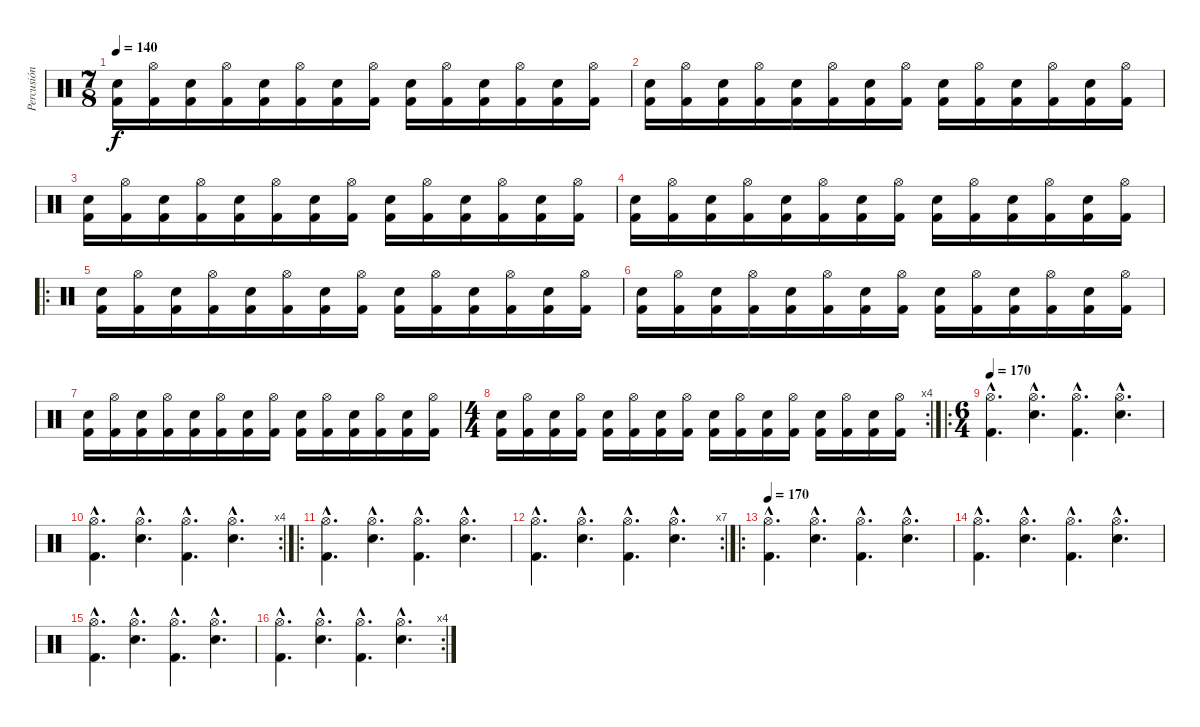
\track ("Percusión" "Percusión") {instrument percussion}
\staff {score}
\articulation defaults
\ts (7 8)
\tempo 140
\clef neutral
\ks c
("Snare (hit) 2" "Kick (hit) 2").16{dy f} ("Hi-Hat (open)" "Kick (hit) 2").16 ("Snare (hit) 2" "Kick (hit) 2").16 ("Hi-Hat (open)" "Kick (hit) 2").16 ("Snare (hit) 2" "Kick (hit) 2").16 ("Hi-Hat (open)" "Kick (hit) 2").16 ("Snare (hit) 2" "Kick (hit) 2").16 ("Hi-Hat (open)" "Kick (hit) 2").16 ("Snare (hit) 2" "Kick (hit) 2").16 ("Hi-Hat (open)" "Kick (hit) 2").16 ("Snare (hit) 2" "Kick (hit) 2").16 ("Hi-Hat (open)" "Kick (hit) 2").16 ("Snare (hit) 2" "Kick (hit) 2").16 ("Hi-Hat (open)" "Kick (hit) 2").16 |
("Snare (hit) 2" "Kick (hit) 2").16 ("Hi-Hat (open)" "Kick (hit) 2").16 ("Snare (hit) 2" "Kick (hit) 2").16 ("Hi-Hat (open)" "Kick (hit) 2").16 ("Snare (hit) 2" "Kick (hit) 2").16 ("Hi-Hat (open)" "Kick (hit) 2").16 ("Snare (hit) 2" "Kick (hit) 2").16 ("Hi-Hat (open)" "Kick (hit) 2").16 ("Snare (hit) 2" "Kick (hit) 2").16 ("Hi-Hat (open)" "Kick (hit) 2").16 ("Snare (hit) 2" "Kick (hit) 2").16 ("Hi-Hat (open)" "Kick (hit) 2").16 ("Snare (hit) 2" "Kick (hit) 2").16 ("Hi-Hat (open)" "Kick (hit) 2").16 |
("Snare (hit) 2" "Kick (hit) 2").16 ("Hi-Hat (open)" "Kick (hit) 2").16 ("Snare (hit) 2" "Kick (hit) 2").16 ("Hi-Hat (open)" "Kick (hit) 2").16 ("Snare (hit) 2" "Kick (hit) 2").16 ("Hi-Hat (open)" "Kick (hit) 2").16 ("Snare (hit) 2" "Kick (hit) 2").16 ("Hi-Hat (open)" "Kick (hit) 2").16 ("Snare (hit) 2" "Kick (hit) 2").16 ("Hi-Hat (open)" "Kick (hit) 2").16 ("Snare (hit) 2" "Kick (hit) 2").16 ("Hi-Hat (open)" "Kick (hit) 2").16 ("Snare (hit) 2" "Kick (hit) 2").16 ("Hi-Hat (open)" "Kick (hit) 2").16 |
("Snare (hit) 2" "Kick (hit) 2").16 ("Hi-Hat (open)" "Kick (hit) 2").16 ("Snare (hit) 2" "Kick (hit) 2").16 ("Hi-Hat (open)" "Kick (hit) 2").16 ("Snare (hit) 2" "Kick (hit) 2").16 ("Hi-Hat (open)" "Kick (hit) 2").16 ("Snare (hit) 2" "Kick (hit) 2").16 ("Hi-Hat (open)" "Kick (hit) 2").16 ("Snare (hit) 2" "Kick (hit) 2").16 ("Hi-Hat (open)" "Kick (hit) 2").16 ("Snare (hit) 2" "Kick (hit) 2").16 ("Hi-Hat (open)" "Kick (hit) 2").16 ("Snare (hit) 2" "Kick (hit) 2").16 ("Hi-Hat (open)" "Kick (hit) 2").16 |
\ro
("Snare (hit) 2" "Kick (hit) 2").16 ("Hi-Hat (open)" "Kick (hit) 2").16 ("Snare (hit) 2" "Kick (hit) 2").16 ("Hi-Hat (open)" "Kick (hit) 2").16 ("Snare (hit) 2" "Kick (hit) 2").16 ("Hi-Hat (open)" "Kick (hit) 2").16 ("Snare (hit) 2" "Kick (hit) 2").16 ("Hi-Hat (open)" "Kick (hit) 2").16 ("Snare (hit) 2" "Kick (hit) 2").16 ("Hi-Hat (open)" "Kick (hit) 2").16 ("Snare (hit) 2" "Kick (hit) 2").16 ("Hi-Hat (open)" "Kick (hit) 2").16 ("Snare (hit) 2" "Kick (hit) 2").16 ("Hi-Hat (open)" "Kick (hit) 2").16 |
("Snare (hit) 2" "Kick (hit) 2").16 ("Hi-Hat (open)" "Kick (hit) 2").16 ("Snare (hit) 2" "Kick (hit) 2").16 ("Hi-Hat (open)" "Kick (hit) 2").16 ("Snare (hit) 2" "Kick (hit) 2").16 ("Hi-Hat (open)" "Kick (hit) 2").16 ("Snare (hit) 2" "Kick (hit) 2").16 ("Hi-Hat (open)" "Kick (hit) 2").16 ("Snare (hit) 2" "Kick (hit) 2").16 ("Hi-Hat (open)" "Kick (hit) 2").16 ("Snare (hit) 2" "Kick (hit) 2").16 ("Hi-Hat (open)" "Kick (hit) 2").16 ("Snare (hit) 2" "Kick (hit) 2").16 ("Hi-Hat (open)" "Kick (hit) 2").16 |
("Snare (hit) 2" "Kick (hit) 2").16 ("Hi-Hat (open)" "Kick (hit) 2").16 ("Snare (hit) 2" "Kick (hit) 2").16 ("Hi-Hat (open)" "Kick (hit) 2").16 ("Snare (hit) 2" "Kick (hit) 2").16 ("Hi-Hat (open)" "Kick (hit) 2").16 ("Snare (hit) 2" "Kick (hit) 2").16 ("Hi-Hat (open)" "Kick (hit) 2").16 ("Snare (hit) 2" "Kick (hit) 2").16 ("Hi-Hat (open)" "Kick (hit) 2").16 ("Snare (hit) 2" "Kick (hit) 2").16 ("Hi-Hat (open)" "Kick (hit) 2").16 ("Snare (hit) 2" "Kick (hit) 2").16 ("Hi-Hat (open)" "Kick (hit) 2").16 |
\rc 4
\ts (4 4)
("Snare (hit) 2" "Kick (hit) 2").16 ("Hi-Hat (open)" "Kick (hit) 2").16 ("Snare (hit) 2" "Kick (hit) 2").16 ("Hi-Hat (open)" "Kick (hit) 2").16 ("Snare (hit) 2" "Kick (hit) 2").16 ("Hi-Hat (open)" "Kick (hit) 2").16 ("Snare (hit) 2" "Kick (hit) 2").16 ("Hi-Hat (open)" "Kick (hit) 2").16 ("Snare (hit) 2" "Kick (hit) 2").16 ("Hi-Hat (open)" "Kick (hit) 2").16 ("Snare (hit) 2" "Kick (hit) 2").16 ("Hi-Hat (open)" "Kick (hit) 2").16 ("Snare (hit) 2" "Kick (hit) 2").16 ("Hi-Hat (open)" "Kick (hit) 2").16 ("Snare (hit) 2" "Kick (hit) 2").16 ("Hi-Hat (open)" "Kick (hit) 2").16 |
\ro
\ts (6 4)
\tempo 170
("Hi-Hat (open)"{hac} "Kick (hit) 2"{hac}).4{d} ("Hi-Hat (open)"{hac} "Snare (hit) 2"{hac}).4{d} ("Hi-Hat (open)"{hac} "Kick (hit) 2"{hac}).4{d} ("Hi-Hat (open)"{hac} "Snare (hit) 2"{hac}).4{d} |
\rc 4
("Hi-Hat (open)"{hac} "Kick (hit) 2"{hac}).4{d} ("Hi-Hat (open)"{hac} "Snare (hit) 2"{hac}).4{d} ("Hi-Hat (open)"{hac} "Kick (hit) 2"{hac}).4{d} ("Hi-Hat (open)"{hac} "Snare (hit) 2"{hac}).4{d} |
\ro
("Hi-Hat (open)"{hac} "Kick (hit) 2"{hac}).4{d} ("Hi-Hat (open)"{hac} "Snare (hit) 2"{hac}).4{d} ("Hi-Hat (open)"{hac} "Kick (hit) 2"{hac}).4{d} ("Hi-Hat (open)"{hac} "Snare (hit) 2"{hac}).4{d} |
\rc 7
("Hi-Hat (open)"{hac} "Kick (hit) 2"{hac}).4{d} ("Hi-Hat (open)"{hac} "Snare (hit) 2"{hac}).4{d} ("Hi-Hat (open)"{hac} "Kick (hit) 2"{hac}).4{d} ("Hi-Hat (open)"{hac} "Snare (hit) 2"{hac}).4{d} |
\ro
\tempo 170
("Hi-Hat (open)"{hac} "Kick (hit) 2"{hac}).4{d} ("Hi-Hat (open)"{hac} "Snare (hit) 2"{hac}).4{d} ("Hi-Hat (open)"{hac} "Kick (hit) 2"{hac}).4{d} ("Hi-Hat (open)"{hac} "Snare (hit) 2"{hac}).4{d} |
("Hi-Hat (open)"{hac} "Kick (hit) 2"{hac}).4{d} ("Hi-Hat (open)"{hac} "Snare (hit) 2"{hac}).4{d} ("Hi-Hat (open)"{hac} "Kick (hit) 2"{hac}).4{d} ("Hi-Hat (open)"{hac} "Snare (hit) 2"{hac}).4{d} |
("Hi-Hat (open)"{hac} "Kick (hit) 2"{hac}).4{d} ("Hi-Hat (open)"{hac} "Snare (hit) 2"{hac}).4{d} ("Hi-Hat (open)"{hac} "Kick (hit) 2"{hac}).4{d} ("Hi-Hat (open)"{hac} "Snare (hit) 2"{hac}).4{d} |
\rc 4
("Hi-Hat (open)"{hac} "Kick (hit) 2"{hac}).4{d} ("Hi-Hat (open)"{hac} "Snare (hit) 2"{hac}).4{d} ("Hi-Hat (open)"{hac} "Kick (hit) 2"{hac}).4{d} ("Hi-Hat (open)"{hac} "Snare (hit) 2"{hac}).4{d}
